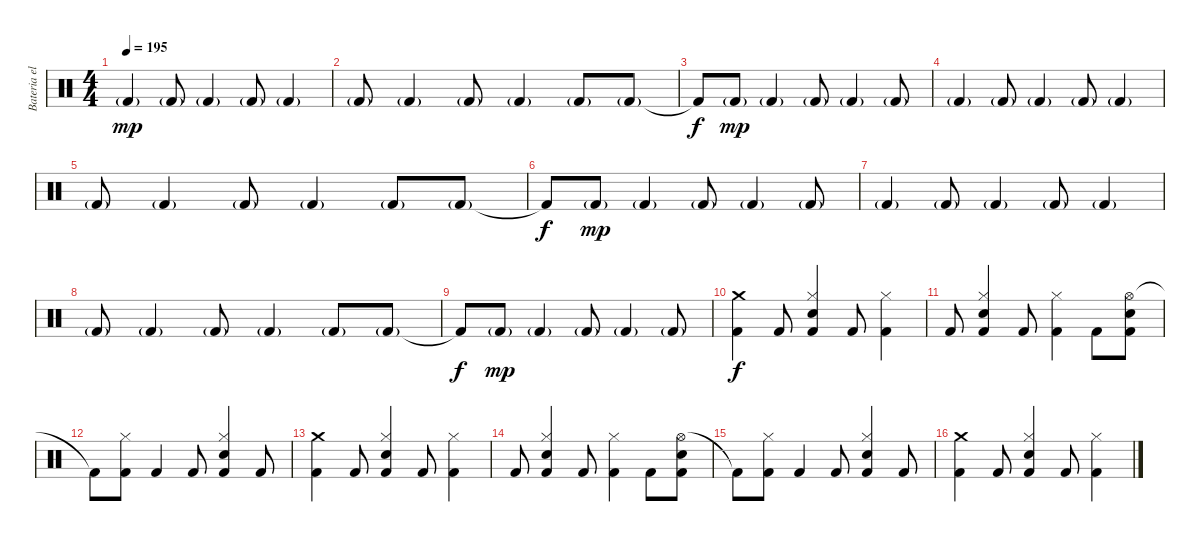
\track ("Bateria electrica" "Bateria el") {instrument percussion}
\staff {score}
\articulation defaults
\ts (4 4)
\tempo 195
\clef neutral
\ks c "Kick (hit) 2"{g}.4{dy mp} "Kick (hit) 2"{g}.8 "Kick (hit) 2"{g}.4 "Kick (hit) 2"{g}.8 "Kick (hit) 2"{g}.4
|
"Kick (hit) 2"{g}.8 "Kick (hit) 2"{g}.4 "Kick (hit) 2"{g}.8 "Kick (hit) 2"{g}.4 "Kick (hit) 2"{g}.8 "Kick (hit) 2"{g}.8 |
"Kick (hit) 2"{t}.8{dy f} "Kick (hit) 2"{g}.8{dy mp} "Kick (hit) 2"{g}.4 "Kick (hit) 2"{g}.8 "Kick (hit) 2"{g}.4 "Kick (hit) 2"{g}.8 |
"Kick (hit) 2"{g}.4 "Kick (hit) 2"{g}.8 "Kick (hit) 2"{g}.4 "Kick (hit) 2"{g}.8 "Kick (hit) 2"{g}.4 |
"Kick (hit) 2"{g}.8 "Kick (hit) 2"{g}.4 "Kick (hit) 2"{g}.8 "Kick (hit) 2"{g}.4 "Kick (hit) 2"{g}.8 "Kick (hit) 2"{g}.8 |
"Kick (hit) 2"{t}.8{dy f} "Kick (hit) 2"{g}.8{dy mp} "Kick (hit) 2"{g}.4 "Kick (hit) 2"{g}.8 "Kick (hit) 2"{g}.4 "Kick (hit) 2"{g}.8 |
"Kick (hit) 2"{g}.4 "Kick (hit) 2"{g}.8 "Kick (hit) 2"{g}.4 "Kick (hit) 2"{g}.8 "Kick (hit) 2"{g}.4 |
"Kick (hit) 2"{g}.8 "Kick (hit) 2"{g}.4 "Kick (hit) 2"{g}.8 "Kick (hit) 2"{g}.4 "Kick (hit) 2"{g}.8 "Kick (hit) 2"{g}.8 |
"Kick (hit) 2"{t}.8{dy f} "Kick (hit) 2"{g}.8{dy mp} "Kick (hit) 2"{g}.4 "Kick (hit) 2"{g}.8 "Kick (hit) 2"{g}.4 "Kick (hit) 2"{g}.8 |
("Crash medium (hit)" "Kick (hit) 2").4{dy f volume 15} "Kick (hit) 2".8 ("Hi-Hat (closed)" "Kick (hit) 2" "Snare (hit) 2").4 "Kick (hit) 2".8 ("Hi-Hat (closed)" "Kick (hit) 2").4 |
"Kick (hit) 2".8 ("Hi-Hat (closed)" "Kick (hit) 2" "Snare (hit) 2").4 "Kick (hit) 2".8 ("Hi-Hat (closed)" "Kick (hit) 2").4 "Kick (hit) 2".8 ("Hi-Hat (open)" "Kick (hit) 2" "Snare (hit) 2").8 |
"Kick (hit) 2"{t}.8 ("Hi-Hat (closed)" "Kick (hit) 2").8 "Kick (hit) 2".4 "Kick (hit) 2".8 ("Hi-Hat (closed)" "Kick (hit) 2" "Snare (hit) 2").4 "Kick (hit) 2".8 |
("Crash medium (hit)" "Kick (hit) 2").4 "Kick (hit) 2".8 ("Hi-Hat (closed)" "Kick (hit) 2" "Snare (hit) 2").4 "Kick (hit) 2".8 ("Hi-Hat (closed)" "Kick (hit) 2").4 |
"Kick (hit) 2".8 ("Hi-Hat (closed)" "Kick (hit) 2" "Snare (hit) 2").4 "Kick (hit) 2".8 ("Hi-Hat (closed)" "Kick (hit) 2").4 "Kick (hit) 2".8 ("Hi-Hat (open)" "Kick (hit) 2" "Snare (hit) 2").8 |
"Kick (hit) 2"{t}.8 ("Hi-Hat (closed)" "Kick (hit) 2").8 "Kick (hit) 2".4 "Kick (hit) 2".8 ("Hi-Hat (closed)" "Kick (hit) 2" "Snare (hit) 2").4 "Kick (hit) 2".8 |
("Crash medium (hit)" "Kick (hit) 2").4 "Kick (hit) 2".8 ("Hi-Hat (closed)" "Kick (hit) 2" "Snare (hit) 2").4 "Kick (hit) 2".8 ("Hi-Hat (closed)" "Kick (hit) 2").4
